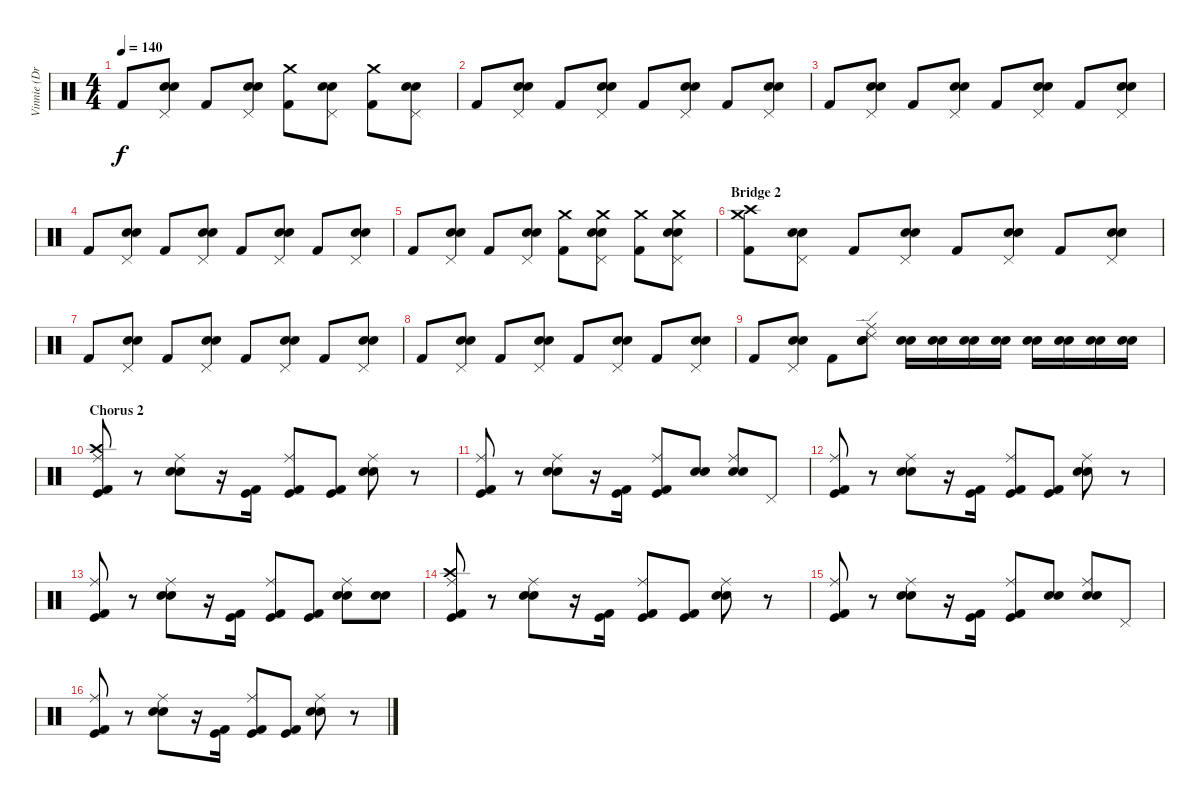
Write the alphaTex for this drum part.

\track ("Vinnie (Drums)" "Vinnie (Dr") {instrument percussion}
\staff {score}
\articulation defaults
\ts (4 4)
\tempo 140
\clef neutral
\ks c "Kick (hit) 2".8{dy f}
("Snare (hit) 2" "Electric Snare (hit)" "Pedal Hi-Hat (hit)").8 "Kick (hit) 2".8 ("Snare (hit) 2" "Electric Snare (hit)" "Pedal Hi-Hat (hit)").8 ("Kick (hit) 2" "Crash medium (hit)").8 ("Snare (hit) 2" "Electric Snare (hit)" "Pedal Hi-Hat (hit)").8 ("Kick (hit) 2" "Crash medium (hit)").8 ("Snare (hit) 2" "Electric Snare (hit)" "Pedal Hi-Hat (hit)").8 |
"Kick (hit) 2".8 ("Snare (hit) 2" "Electric Snare (hit)" "Pedal Hi-Hat (hit)").8 "Kick (hit) 2".8 ("Snare (hit) 2" "Electric Snare (hit)" "Pedal Hi-Hat (hit)").8 "Kick (hit) 2".8 ("Snare (hit) 2" "Electric Snare (hit)" "Pedal Hi-Hat (hit)").8 "Kick (hit) 2".8 ("Snare (hit) 2" "Electric Snare (hit)" "Pedal Hi-Hat (hit)").8 |
"Kick (hit) 2".8 ("Snare (hit) 2" "Electric Snare (hit)" "Pedal Hi-Hat (hit)").8 "Kick (hit) 2".8 ("Snare (hit) 2" "Electric Snare (hit)" "Pedal Hi-Hat (hit)").8 "Kick (hit) 2".8 ("Snare (hit) 2" "Electric Snare (hit)" "Pedal Hi-Hat (hit)").8 "Kick (hit) 2".8 ("Snare (hit) 2" "Electric Snare (hit)" "Pedal Hi-Hat (hit)").8 |
"Kick (hit) 2".8 ("Snare (hit) 2" "Electric Snare (hit)" "Pedal Hi-Hat (hit)").8 "Kick (hit) 2".8 ("Snare (hit) 2" "Electric Snare (hit)" "Pedal Hi-Hat (hit)").8 "Kick (hit) 2".8 ("Snare (hit) 2" "Electric Snare (hit)" "Pedal Hi-Hat (hit)").8 "Kick (hit) 2".8 ("Snare (hit) 2" "Electric Snare (hit)" "Pedal Hi-Hat (hit)").8 |
"Kick (hit) 2".8 ("Snare (hit) 2" "Electric Snare (hit)" "Pedal Hi-Hat (hit)").8 "Kick (hit) 2".8 ("Snare (hit) 2" "Electric Snare (hit)" "Pedal Hi-Hat (hit)").8 ("Kick (hit) 2" "Crash medium (hit)").8 ("Snare (hit) 2" "Electric Snare (hit)" "Pedal Hi-Hat (hit)" "Crash medium (hit)").8 ("Kick (hit) 2" "Crash medium (hit)").8 ("Snare (hit) 2" "Electric Snare (hit)" "Pedal Hi-Hat (hit)" "Crash medium (hit)").8 |
\section ("" "Bridge 2")
("Kick (hit) 2" "Crash medium (hit)" "Crash high (hit)").8 ("Snare (hit) 2" "Electric Snare (hit)" "Pedal Hi-Hat (hit)").8 "Kick (hit) 2".8 ("Snare (hit) 2" "Electric Snare (hit)" "Pedal Hi-Hat (hit)").8 "Kick (hit) 2".8 ("Snare (hit) 2" "Electric Snare (hit)" "Pedal Hi-Hat (hit)").8 "Kick (hit) 2".8 ("Snare (hit) 2" "Electric Snare (hit)" "Pedal Hi-Hat (hit)").8 |
"Kick (hit) 2".8 ("Snare (hit) 2" "Electric Snare (hit)" "Pedal Hi-Hat (hit)").8 "Kick (hit) 2".8 ("Snare (hit) 2" "Electric Snare (hit)" "Pedal Hi-Hat (hit)").8 "Kick (hit) 2".8 ("Snare (hit) 2" "Electric Snare (hit)" "Pedal Hi-Hat (hit)").8 "Kick (hit) 2".8 ("Snare (hit) 2" "Electric Snare (hit)" "Pedal Hi-Hat (hit)").8 |
"Kick (hit) 2".8 ("Snare (hit) 2" "Electric Snare (hit)" "Pedal Hi-Hat (hit)").8 "Kick (hit) 2".8 ("Snare (hit) 2" "Electric Snare (hit)" "Pedal Hi-Hat (hit)").8 "Kick (hit) 2".8 ("Snare (hit) 2" "Electric Snare (hit)" "Pedal Hi-Hat (hit)").8 "Kick (hit) 2".8 ("Snare (hit) 2" "Electric Snare (hit)" "Pedal Hi-Hat (hit)").8 |
"Kick (hit) 2".8 ("Snare (hit) 2" "Electric Snare (hit)" "Pedal Hi-Hat (hit)").8 "Kick (hit) 2".8 ("Snare (hit) 2" "Electric Snare (hit)" "Ride (edge) 2" "Ride (middle)").8 ("Snare (hit) 2" "Electric Snare (hit)").16 ("Snare (hit) 2" "Electric Snare (hit)").16 ("Snare (hit) 2" "Electric Snare (hit)").16 ("Snare (hit) 2" "Electric Snare (hit)").16 ("Snare (hit) 2" "Electric Snare (hit)").16 ("Snare (hit) 2" "Electric Snare (hit)").16 ("Snare (hit) 2" "Electric Snare (hit)").16 ("Snare (hit) 2" "Electric Snare (hit)").16 |
\section ("" "Chorus 2")
("Kick (hit) 2" "Kick (hit)" "Ride (middle)" "Crash high (hit)").8 r.8 ("Snare (hit) 2" "Electric Snare (hit)" "Ride (middle)").8 r.16 ("Kick (hit) 2" "Kick (hit)").16 ("Kick (hit) 2" "Kick (hit)" "Ride (middle)").8 ("Kick (hit) 2" "Kick (hit)").8 ("Snare (hit) 2" "Electric Snare (hit)" "Ride (middle)").8 r.8 |
("Kick (hit) 2" "Kick (hit)" "Ride (middle)").8 r.8 ("Snare (hit) 2" "Electric Snare (hit)" "Ride (middle)").8 r.16 ("Kick (hit) 2" "Kick (hit)").16 ("Kick (hit) 2" "Kick (hit)" "Ride (middle)").8 ("Snare (hit) 2" "Electric Snare (hit)").8 ("Snare (hit) 2" "Electric Snare (hit)" "Ride (middle)").8 "Pedal Hi-Hat (hit)".8 |
("Kick (hit) 2" "Kick (hit)" "Ride (middle)").8 r.8 ("Snare (hit) 2" "Electric Snare (hit)" "Ride (middle)").8 r.16 ("Kick (hit) 2" "Kick (hit)").16 ("Kick (hit) 2" "Kick (hit)" "Ride (middle)").8 ("Kick (hit) 2" "Kick (hit)").8 ("Snare (hit) 2" "Electric Snare (hit)" "Ride (middle)").8 r.8 |
("Kick (hit) 2" "Kick (hit)" "Ride (middle)").8 r.8 ("Snare (hit) 2" "Electric Snare (hit)" "Ride (middle)").8 r.16 ("Kick (hit) 2" "Kick (hit)").16 ("Kick (hit) 2" "Kick (hit)" "Ride (middle)").8 ("Kick (hit) 2" "Kick (hit)").8 ("Snare (hit) 2" "Electric Snare (hit)" "Ride (middle)").8 ("Snare (hit) 2" "Electric Snare (hit)").8 |
("Kick (hit) 2" "Kick (hit)" "Ride (middle)" "Crash high (hit)").8 r.8 ("Snare (hit) 2" "Electric Snare (hit)" "Ride (middle)").8 r.16 ("Kick (hit) 2" "Kick (hit)").16 ("Kick (hit) 2" "Kick (hit)" "Ride (middle)").8 ("Kick (hit) 2" "Kick (hit)").8 ("Snare (hit) 2" "Electric Snare (hit)" "Ride (middle)").8 r.8 |
("Kick (hit) 2" "Kick (hit)" "Ride (middle)").8 r.8 ("Snare (hit) 2" "Electric Snare (hit)" "Ride (middle)").8 r.16 ("Kick (hit) 2" "Kick (hit)").16 ("Kick (hit) 2" "Kick (hit)" "Ride (middle)").8 ("Snare (hit) 2" "Electric Snare (hit)").8 ("Snare (hit) 2" "Electric Snare (hit)" "Ride (middle)").8 "Pedal Hi-Hat (hit)".8 |
("Kick (hit) 2" "Kick (hit)" "Ride (middle)").8 r.8 ("Snare (hit) 2" "Electric Snare (hit)" "Ride (middle)").8 r.16 ("Kick (hit) 2" "Kick (hit)").16 ("Kick (hit) 2" "Kick (hit)" "Ride (middle)").8 ("Kick (hit) 2" "Kick (hit)").8 ("Snare (hit) 2" "Electric Snare (hit)" "Ride (middle)").8 r.8
